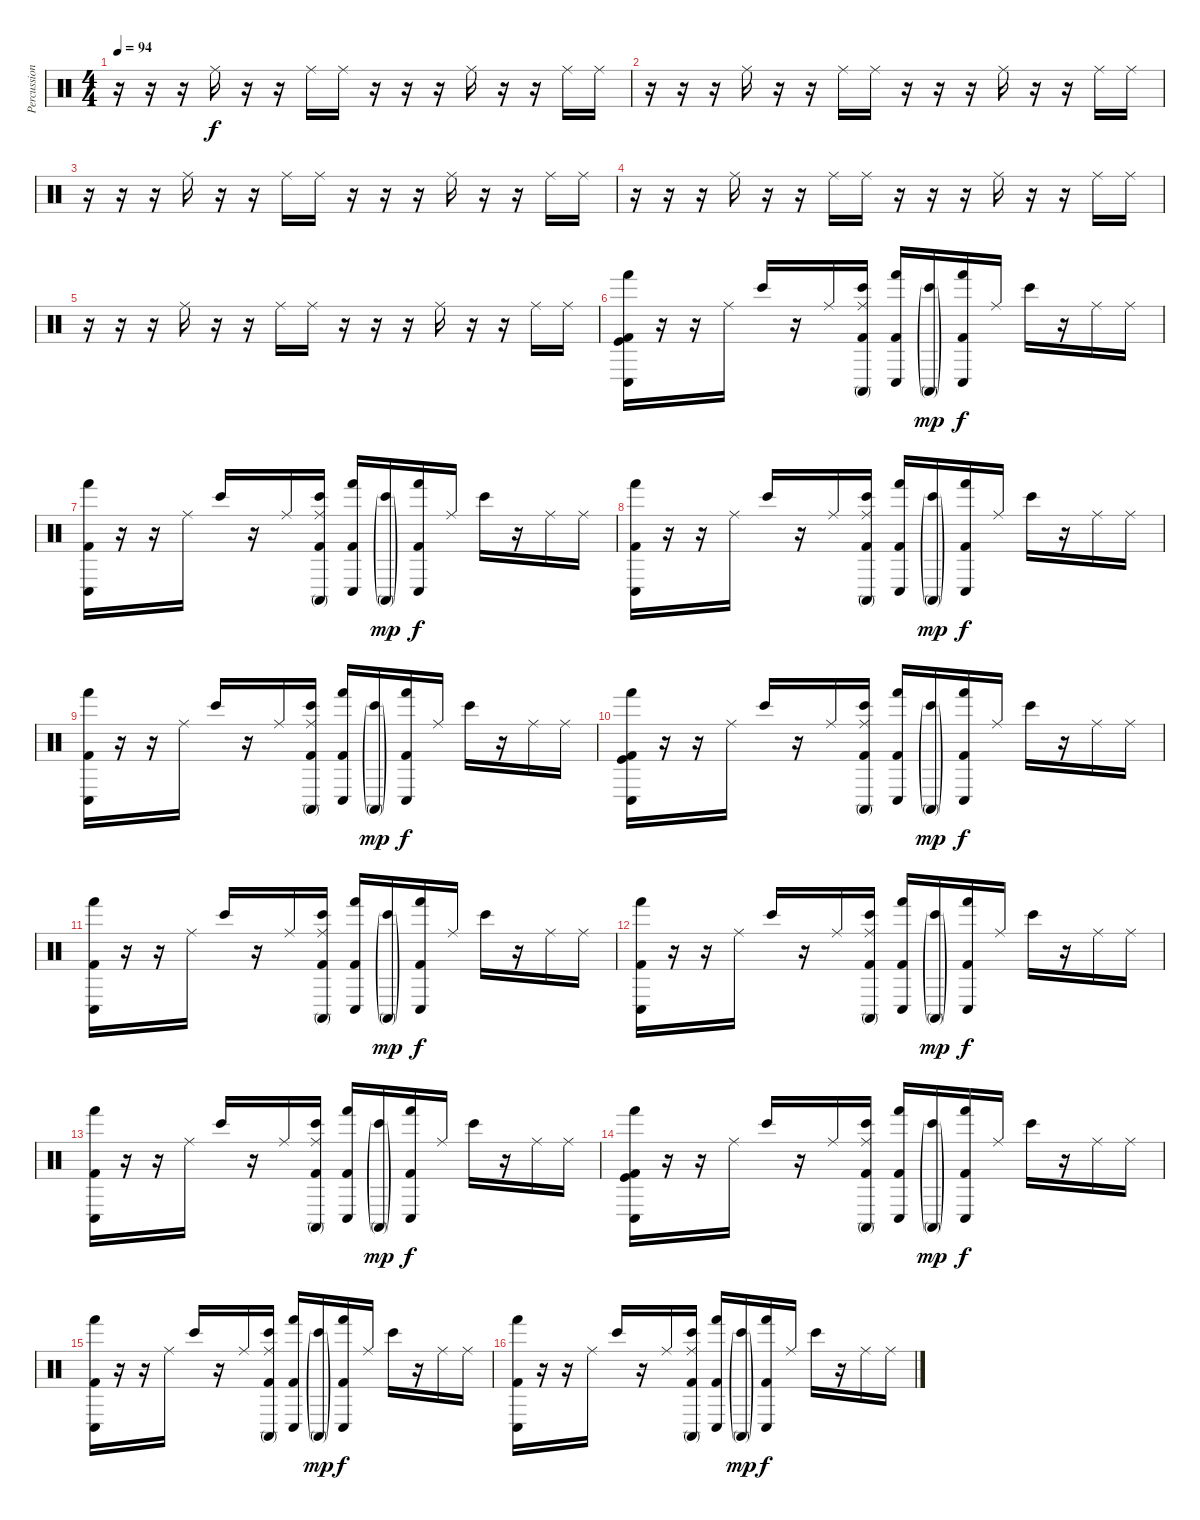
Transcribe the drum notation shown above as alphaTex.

\track ("Percussion" "Percussion") {instrument percussion}
\staff {score}
\articulation defaults
\ts (4 4)
\tempo 94
\clef neutral
\ks c
r.16{dy f} r.16 r.16 "Ride (middle)".16 r.16 r.16 "Ride (middle)".16 "Ride (middle)".16 r.16 r.16 r.16 "Ride (middle)".16 r.16 r.16 "Ride (middle)".16 "Ride (middle)".16 |
r.16 r.16 r.16 "Ride (middle)".16 r.16 r.16 "Ride (middle)".16 "Ride (middle)".16 r.16 r.16 r.16 "Ride (middle)".16 r.16 r.16 "Ride (middle)".16 "Ride (middle)".16 |
r.16 r.16 r.16 "Ride (middle)".16 r.16 r.16 "Ride (middle)".16 "Ride (middle)".16 r.16 r.16 r.16 "Ride (middle)".16 r.16 r.16 "Ride (middle)".16 "Ride (middle)".16 |
r.16 r.16 r.16 "Ride (middle)".16 r.16 r.16 "Ride (middle)".16 "Ride (middle)".16 r.16 r.16 r.16 "Ride (middle)".16 r.16 r.16 "Ride (middle)".16 "Ride (middle)".16 |
r.16 r.16 r.16 "Ride (middle)".16 r.16 r.16 "Ride (middle)".16 "Ride (middle)".16 r.16 r.16 r.16 "Ride (middle)".16 r.16 r.16 "Ride (middle)".16 "Ride (middle)".16 |
("Hand (hit)" "Conga low (hit)" "Kick (hit)" "Kick (hit) 2").16 r.16 r.16 "Ride (middle)".16 "Bongo High (hit)".16 r.16 "Ride (middle)".16 ("Bongo High (hit)" "Conga high (mute)" "Ride (middle)" "Kick (hit) 2").16 ("Hand (hit)" "Conga low (hit)" "Kick (hit) 2").16 ("Bongo High (hit)"{g} "Conga high (mute)"{g}).16{dy mp} ("Hand (hit)" "Conga low (hit)" "Kick (hit) 2").16{dy f} "Ride (middle)".16 "Bongo High (hit)".16 r.16 "Ride (middle)".16 "Ride (middle)".16 |
("Hand (hit)" "Conga low (hit)" "Kick (hit) 2").16 r.16 r.16 "Ride (middle)".16 "Bongo High (hit)".16 r.16 "Ride (middle)".16 ("Bongo High (hit)" "Conga high (mute)" "Ride (middle)" "Kick (hit) 2").16 ("Hand (hit)" "Conga low (hit)" "Kick (hit) 2").16 ("Bongo High (hit)"{g} "Conga high (mute)"{g}).16{dy mp} ("Hand (hit)" "Conga low (hit)" "Kick (hit) 2").16{dy f} "Ride (middle)".16 "Bongo High (hit)".16 r.16 "Ride (middle)".16 "Ride (middle)".16 |
("Hand (hit)" "Conga low (hit)" "Kick (hit) 2").16 r.16 r.16 "Ride (middle)".16 "Bongo High (hit)".16 r.16 "Ride (middle)".16 ("Bongo High (hit)" "Conga high (mute)" "Ride (middle)" "Kick (hit) 2").16 ("Hand (hit)" "Conga low (hit)" "Kick (hit) 2").16 ("Bongo High (hit)"{g} "Conga high (mute)"{g}).16{dy mp} ("Hand (hit)" "Conga low (hit)" "Kick (hit) 2").16{dy f} "Ride (middle)".16 "Bongo High (hit)".16 r.16 "Ride (middle)".16 "Ride (middle)".16 |
("Hand (hit)" "Conga low (hit)" "Kick (hit) 2").16 r.16 r.16 "Ride (middle)".16 "Bongo High (hit)".16 r.16 "Ride (middle)".16 ("Bongo High (hit)" "Conga high (mute)" "Ride (middle)" "Kick (hit) 2").16 ("Hand (hit)" "Conga low (hit)" "Kick (hit) 2").16 ("Bongo High (hit)"{g} "Conga high (mute)"{g}).16{dy mp} ("Hand (hit)" "Conga low (hit)" "Kick (hit) 2").16{dy f} "Ride (middle)".16 "Bongo High (hit)".16 r.16 "Ride (middle)".16 "Ride (middle)".16 |
("Hand (hit)" "Conga low (hit)" "Kick (hit)" "Kick (hit) 2").16 r.16 r.16 "Ride (middle)".16 "Bongo High (hit)".16 r.16 "Ride (middle)".16 ("Bongo High (hit)" "Conga high (mute)" "Ride (middle)" "Kick (hit) 2").16 ("Hand (hit)" "Conga low (hit)" "Kick (hit) 2").16 ("Bongo High (hit)"{g} "Conga high (mute)"{g}).16{dy mp} ("Hand (hit)" "Conga low (hit)" "Kick (hit) 2").16{dy f} "Ride (middle)".16 "Bongo High (hit)".16 r.16 "Ride (middle)".16 "Ride (middle)".16 |
("Hand (hit)" "Conga low (hit)" "Kick (hit) 2").16 r.16 r.16 "Ride (middle)".16 "Bongo High (hit)".16 r.16 "Ride (middle)".16 ("Bongo High (hit)" "Conga high (mute)" "Ride (middle)" "Kick (hit) 2").16 ("Hand (hit)" "Conga low (hit)" "Kick (hit) 2").16 ("Bongo High (hit)"{g} "Conga high (mute)"{g}).16{dy mp} ("Hand (hit)" "Conga low (hit)" "Kick (hit) 2").16{dy f} "Ride (middle)".16 "Bongo High (hit)".16 r.16 "Ride (middle)".16 "Ride (middle)".16 |
("Hand (hit)" "Conga low (hit)" "Kick (hit) 2").16 r.16 r.16 "Ride (middle)".16 "Bongo High (hit)".16 r.16 "Ride (middle)".16 ("Bongo High (hit)" "Conga high (mute)" "Ride (middle)" "Kick (hit) 2").16 ("Hand (hit)" "Conga low (hit)" "Kick (hit) 2").16 ("Bongo High (hit)"{g} "Conga high (mute)"{g}).16{dy mp} ("Hand (hit)" "Conga low (hit)" "Kick (hit) 2").16{dy f} "Ride (middle)".16 "Bongo High (hit)".16 r.16 "Ride (middle)".16 "Ride (middle)".16 |
("Hand (hit)" "Conga low (hit)" "Kick (hit) 2").16 r.16 r.16 "Ride (middle)".16 "Bongo High (hit)".16 r.16 "Ride (middle)".16 ("Bongo High (hit)" "Conga high (mute)" "Ride (middle)" "Kick (hit) 2").16 ("Hand (hit)" "Conga low (hit)" "Kick (hit) 2").16 ("Bongo High (hit)"{g} "Conga high (mute)"{g}).16{dy mp} ("Hand (hit)" "Conga low (hit)" "Kick (hit) 2").16{dy f} "Ride (middle)".16 "Bongo High (hit)".16 r.16 "Ride (middle)".16 "Ride (middle)".16 |
("Hand (hit)" "Conga low (hit)" "Kick (hit)" "Kick (hit) 2").16 r.16 r.16 "Ride (middle)".16 "Bongo High (hit)".16 r.16 "Ride (middle)".16 ("Bongo High (hit)" "Conga high (mute)" "Ride (middle)" "Kick (hit) 2").16 ("Hand (hit)" "Conga low (hit)" "Kick (hit) 2").16 ("Bongo High (hit)"{g} "Conga high (mute)"{g}).16{dy mp} ("Hand (hit)" "Conga low (hit)" "Kick (hit) 2").16{dy f} "Ride (middle)".16 "Bongo High (hit)".16 r.16 "Ride (middle)".16 "Ride (middle)".16 |
("Hand (hit)" "Conga low (hit)" "Kick (hit) 2").16 r.16 r.16 "Ride (middle)".16 "Bongo High (hit)".16 r.16 "Ride (middle)".16 ("Bongo High (hit)" "Conga high (mute)" "Ride (middle)" "Kick (hit) 2").16 ("Hand (hit)" "Conga low (hit)" "Kick (hit) 2").16 ("Bongo High (hit)"{g} "Conga high (mute)"{g}).16{dy mp} ("Hand (hit)" "Conga low (hit)" "Kick (hit) 2").16{dy f} "Ride (middle)".16 "Bongo High (hit)".16 r.16 "Ride (middle)".16 "Ride (middle)".16 |
("Hand (hit)" "Conga low (hit)" "Kick (hit) 2").16 r.16 r.16 "Ride (middle)".16 "Bongo High (hit)".16 r.16 "Ride (middle)".16 ("Bongo High (hit)" "Conga high (mute)" "Ride (middle)" "Kick (hit) 2").16 ("Hand (hit)" "Conga low (hit)" "Kick (hit) 2").16 ("Bongo High (hit)"{g} "Conga high (mute)"{g}).16{dy mp} ("Hand (hit)" "Conga low (hit)" "Kick (hit) 2").16{dy f} "Ride (middle)".16 "Bongo High (hit)".16 r.16 "Ride (middle)".16 "Ride (middle)".16
